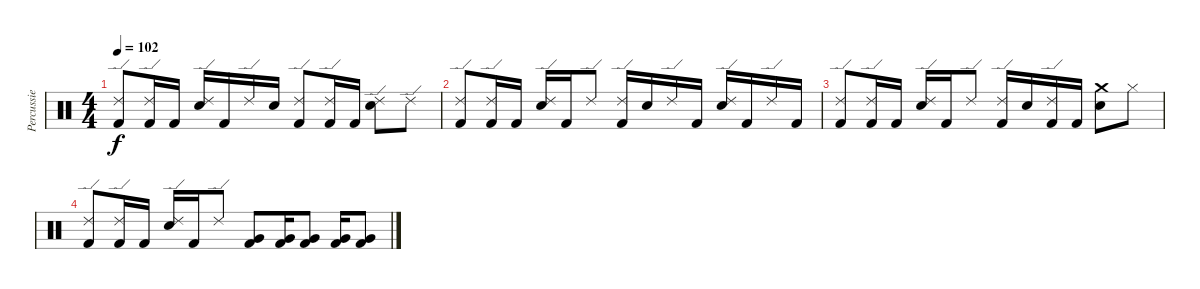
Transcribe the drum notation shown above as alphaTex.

\track ("Percussie" "Percussie") {instrument percussion}
\staff {score}
\articulation defaults
\ts (4 4)
\tempo 102
\clef neutral
\ks c
("Ride (edge) 2" "Kick (hit) 2").8{dy f} ("Ride (edge) 2" "Kick (hit) 2").16 "Kick (hit) 2".16 ("Ride (edge) 2" "Electric Snare (hit)").16 "Kick (hit) 2".16 "Ride (edge) 2".16 "Electric Snare (hit)".16 ("Ride (edge) 2" "Kick (hit) 2").8 ("Ride (edge) 2" "Kick (hit) 2").16 "Kick (hit) 2".16 ("Ride (edge) 2" "Electric Snare (hit)").8 "Ride (edge) 2".8 |
("Ride (edge) 2" "Kick (hit) 2").8 ("Ride (edge) 2" "Kick (hit) 2").16 "Kick (hit) 2".16 ("Ride (edge) 2" "Electric Snare (hit)").16 "Kick (hit) 2".16 "Ride (edge) 2".8 ("Ride (edge) 2" "Kick (hit) 2").16 "Electric Snare (hit)".16 "Ride (edge) 2".16 "Kick (hit) 2".16 ("Ride (edge) 2" "Electric Snare (hit)").16 "Kick (hit) 2".16 "Ride (edge) 2".16 "Kick (hit) 2".16 |
("Ride (edge) 2" "Kick (hit) 2").8 ("Ride (edge) 2" "Kick (hit) 2").16 "Kick (hit) 2".16 ("Ride (edge) 2" "Electric Snare (hit)").16 "Kick (hit) 2".16 "Ride (edge) 2".8 ("Ride (edge) 2" "Kick (hit) 2").16 "Electric Snare (hit)".16 ("Ride (edge) 2" "Kick (hit) 2").16 "Kick (hit) 2".16 ("Crash medium (hit)" "Electric Snare (hit)").8 "Hi-Hat (closed)".8 |
("Ride (edge) 2" "Kick (hit) 2").8 ("Ride (edge) 2" "Kick (hit) 2").16 "Kick (hit) 2".16 ("Ride (edge) 2" "Electric Snare (hit)").16 "Kick (hit) 2".16 "Ride (edge) 2".8 ("Very Low Tom (hit)" "Kick (hit) 2").8 ("Very Low Tom (hit)" "Kick (hit) 2").16 ("Very Low Tom (hit)" "Kick (hit) 2").8 ("Very Low Tom (hit)" "Kick (hit) 2").16 ("Very Low Tom (hit)" "Kick (hit) 2").8
